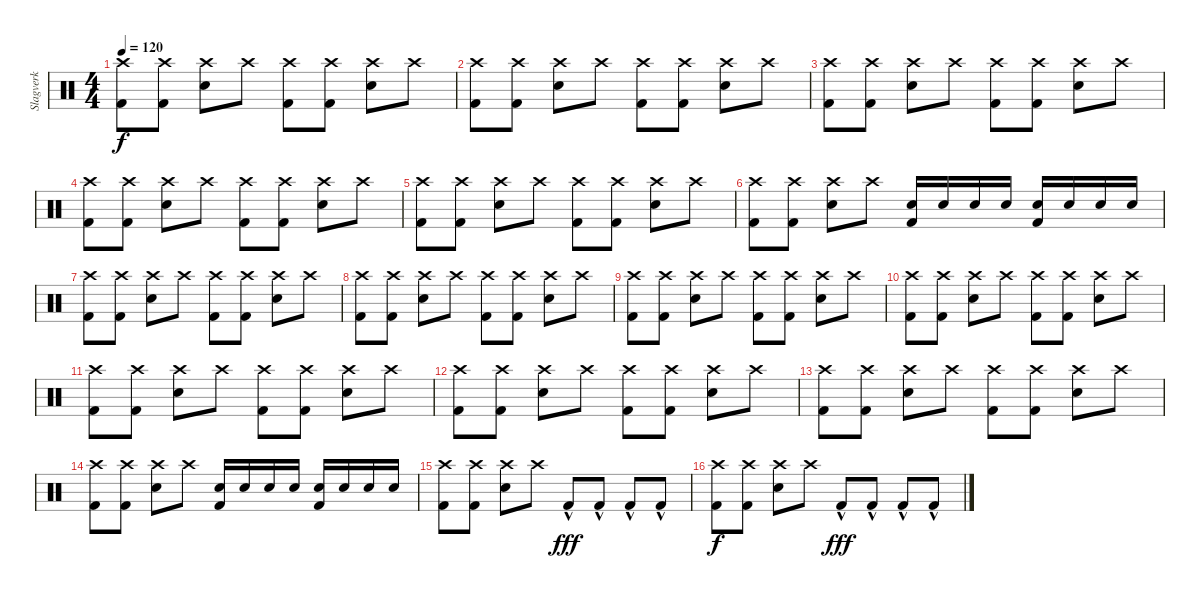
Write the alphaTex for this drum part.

\track ("Slagverk" "Slagverk") {instrument percussion}
\staff {score}
\articulation defaults
\ts (4 4)
\tempo 120
\clef neutral
\ks c
("Crash high (hit)" "Kick (hit) 2").8{dy f} ("Crash high (hit)" "Kick (hit) 2").8 ("Crash high (hit)" "Snare (hit) 2").8 "Crash high (hit)".8 ("Crash high (hit)" "Kick (hit) 2").8 ("Crash high (hit)" "Kick (hit) 2").8 ("Crash high (hit)" "Snare (hit) 2").8 "Crash high (hit)".8 |
("Crash high (hit)" "Kick (hit) 2").8 ("Crash high (hit)" "Kick (hit) 2").8 ("Crash high (hit)" "Snare (hit) 2").8 "Crash high (hit)".8 ("Crash high (hit)" "Kick (hit) 2").8 ("Crash high (hit)" "Kick (hit) 2").8 ("Crash high (hit)" "Snare (hit) 2").8 "Crash high (hit)".8 |
("Crash high (hit)" "Kick (hit) 2").8 ("Crash high (hit)" "Kick (hit) 2").8 ("Crash high (hit)" "Snare (hit) 2").8 "Crash high (hit)".8 ("Crash high (hit)" "Kick (hit) 2").8 ("Crash high (hit)" "Kick (hit) 2").8 ("Crash high (hit)" "Snare (hit) 2").8 "Crash high (hit)".8 |
("Crash high (hit)" "Kick (hit) 2").8 ("Crash high (hit)" "Kick (hit) 2").8 ("Crash high (hit)" "Snare (hit) 2").8 "Crash high (hit)".8 ("Crash high (hit)" "Kick (hit) 2").8 ("Crash high (hit)" "Kick (hit) 2").8 ("Crash high (hit)" "Snare (hit) 2").8 "Crash high (hit)".8 |
("Crash high (hit)" "Kick (hit) 2").8 ("Crash high (hit)" "Kick (hit) 2").8 ("Crash high (hit)" "Snare (hit) 2").8 "Crash high (hit)".8 ("Crash high (hit)" "Kick (hit) 2").8 ("Crash high (hit)" "Kick (hit) 2").8 ("Crash high (hit)" "Snare (hit) 2").8 "Crash high (hit)".8 |
("Crash high (hit)" "Kick (hit) 2").8 ("Crash high (hit)" "Kick (hit) 2").8 ("Crash high (hit)" "Snare (hit) 2").8 "Crash high (hit)".8 ("Snare (hit) 2" "Kick (hit) 2").16 "Snare (hit) 2".16 "Snare (hit) 2".16 "Snare (hit) 2".16 ("Snare (hit) 2" "Kick (hit) 2").16 "Snare (hit) 2".16 "Snare (hit) 2".16 "Snare (hit) 2".16 |
("Crash high (hit)" "Kick (hit) 2").8 ("Crash high (hit)" "Kick (hit) 2").8 ("Crash high (hit)" "Snare (hit) 2").8 "Crash high (hit)".8 ("Crash high (hit)" "Kick (hit) 2").8 ("Crash high (hit)" "Kick (hit) 2").8 ("Crash high (hit)" "Snare (hit) 2").8 "Crash high (hit)".8 |
("Crash high (hit)" "Kick (hit) 2").8 ("Crash high (hit)" "Kick (hit) 2").8 ("Crash high (hit)" "Snare (hit) 2").8 "Crash high (hit)".8 ("Crash high (hit)" "Kick (hit) 2").8 ("Crash high (hit)" "Kick (hit) 2").8 ("Crash high (hit)" "Snare (hit) 2").8 "Crash high (hit)".8 |
("Crash high (hit)" "Kick (hit) 2").8 ("Crash high (hit)" "Kick (hit) 2").8 ("Crash high (hit)" "Snare (hit) 2").8 "Crash high (hit)".8 ("Crash high (hit)" "Kick (hit) 2").8 ("Crash high (hit)" "Kick (hit) 2").8 ("Crash high (hit)" "Snare (hit) 2").8 "Crash high (hit)".8 |
("Crash high (hit)" "Kick (hit) 2").8 ("Crash high (hit)" "Kick (hit) 2").8 ("Crash high (hit)" "Snare (hit) 2").8 "Crash high (hit)".8 ("Crash high (hit)" "Kick (hit) 2").8 ("Crash high (hit)" "Kick (hit) 2").8 ("Crash high (hit)" "Snare (hit) 2").8 "Crash high (hit)".8 |
("Crash high (hit)" "Kick (hit) 2").8 ("Crash high (hit)" "Kick (hit) 2").8 ("Crash high (hit)" "Snare (hit) 2").8 "Crash high (hit)".8 ("Crash high (hit)" "Kick (hit) 2").8 ("Crash high (hit)" "Kick (hit) 2").8 ("Crash high (hit)" "Snare (hit) 2").8 "Crash high (hit)".8 |
("Crash high (hit)" "Kick (hit) 2").8 ("Crash high (hit)" "Kick (hit) 2").8 ("Crash high (hit)" "Snare (hit) 2").8 "Crash high (hit)".8 ("Crash high (hit)" "Kick (hit) 2").8 ("Crash high (hit)" "Kick (hit) 2").8 ("Crash high (hit)" "Snare (hit) 2").8 "Crash high (hit)".8 |
("Crash high (hit)" "Kick (hit) 2").8 ("Crash high (hit)" "Kick (hit) 2").8 ("Crash high (hit)" "Snare (hit) 2").8 "Crash high (hit)".8 ("Crash high (hit)" "Kick (hit) 2").8 ("Crash high (hit)" "Kick (hit) 2").8 ("Crash high (hit)" "Snare (hit) 2").8 "Crash high (hit)".8 |
("Crash high (hit)" "Kick (hit) 2").8 ("Crash high (hit)" "Kick (hit) 2").8 ("Crash high (hit)" "Snare (hit) 2").8 "Crash high (hit)".8 ("Snare (hit) 2" "Kick (hit) 2").16 "Snare (hit) 2".16 "Snare (hit) 2".16 "Snare (hit) 2".16 ("Snare (hit) 2" "Kick (hit) 2").16 "Snare (hit) 2".16 "Snare (hit) 2".16 "Snare (hit) 2".16 |
("Crash high (hit)" "Kick (hit) 2").8 ("Crash high (hit)" "Kick (hit) 2").8 ("Crash high (hit)" "Snare (hit) 2").8 "Crash high (hit)".8 "Kick (hit) 2"{hac}.8{dy fff} "Kick (hit) 2"{hac}.8 "Kick (hit) 2"{hac}.8 "Kick (hit) 2"{hac}.8 |
("Crash high (hit)" "Kick (hit) 2").8{dy f} ("Crash high (hit)" "Kick (hit) 2").8 ("Crash high (hit)" "Snare (hit) 2").8 "Crash high (hit)".8 "Kick (hit) 2"{hac}.8{dy fff} "Kick (hit) 2"{hac}.8 "Kick (hit) 2"{hac}.8 "Kick (hit) 2"{hac}.8
